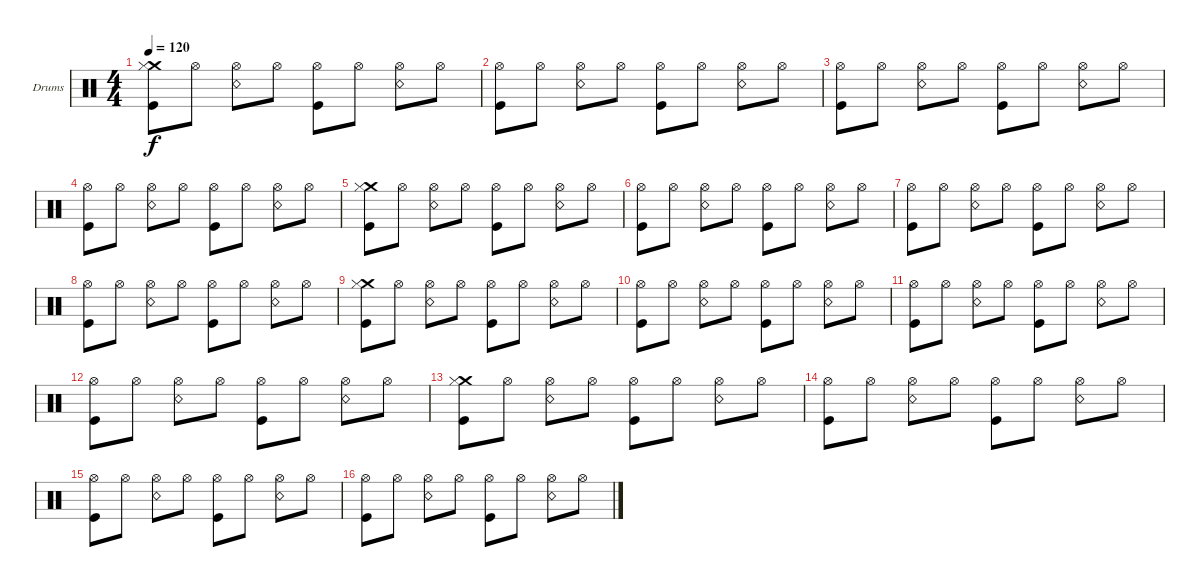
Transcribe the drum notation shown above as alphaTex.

\defaultSystemsLayout 4
\bracketExtendMode groupsimilarinstruments
\firstSystemTrackNameOrientation horizontal
\otherSystemsTrackNameOrientation horizontal
\track ("Drumkit" "Drums") {instrument percussion}
\staff {score}
\articulation defaults
\ts (4 4)
\tempo 120
\clef neutral
\scale
0.333333
\ks c
("Kick (hit)" "Crash medium (hit)" "Hi-Hat (closed)").8{dy f} "Hi-Hat (open)".8 ("Hi-Hat (open)" "Snare (rim shot)").8 "Hi-Hat (open)".8 ("Hi-Hat (open)" "Kick (hit)").8 "Hi-Hat (open)".8 ("Hi-Hat (open)" "Snare (rim shot)").8 "Hi-Hat (open)".8 |
\scale
0.333333 ("Kick (hit)" "Hi-Hat (open)").8 "Hi-Hat (open)".8 ("Hi-Hat (open)" "Snare (rim shot)").8 "Hi-Hat (open)".8 ("Hi-Hat (open)" "Kick (hit)").8 "Hi-Hat (open)".8 ("Hi-Hat (open)" "Snare (rim shot)").8 "Hi-Hat (open)".8 |
\scale
0.333333 ("Kick (hit)" "Hi-Hat (open)").8 "Hi-Hat (open)".8 ("Hi-Hat (open)" "Snare (rim shot)").8 "Hi-Hat (open)".8 ("Hi-Hat (open)" "Kick (hit)").8 "Hi-Hat (open)".8 ("Hi-Hat (open)" "Snare (rim shot)").8 "Hi-Hat (open)".8 |
\scale
0.333333 ("Kick (hit)" "Hi-Hat (open)").8 "Hi-Hat (open)".8 ("Hi-Hat (open)" "Snare (rim shot)").8 "Hi-Hat (open)".8 ("Hi-Hat (open)" "Kick (hit)").8 "Hi-Hat (open)".8 ("Hi-Hat (open)" "Snare (rim shot)").8 "Hi-Hat (open)".8 |
\scale
0.333333 ("Kick (hit)" "Crash medium (hit)" "Hi-Hat (closed)").8 "Hi-Hat (open)".8 ("Hi-Hat (open)" "Snare (rim shot)").8 "Hi-Hat (open)".8 ("Hi-Hat (open)" "Kick (hit)").8 "Hi-Hat (open)".8 ("Hi-Hat (open)" "Snare (rim shot)").8 "Hi-Hat (open)".8 |
\scale
0.333333 ("Kick (hit)" "Hi-Hat (open)").8 "Hi-Hat (open)".8 ("Hi-Hat (open)" "Snare (rim shot)").8 "Hi-Hat (open)".8 ("Hi-Hat (open)" "Kick (hit)").8 "Hi-Hat (open)".8 ("Hi-Hat (open)" "Snare (rim shot)").8 "Hi-Hat (open)".8 |
\scale
0.333333 ("Kick (hit)" "Hi-Hat (open)").8 "Hi-Hat (open)".8 ("Hi-Hat (open)" "Snare (rim shot)").8 "Hi-Hat (open)".8 ("Hi-Hat (open)" "Kick (hit)").8 "Hi-Hat (open)".8 ("Hi-Hat (open)" "Snare (rim shot)").8 "Hi-Hat (open)".8 |
\scale
0.333333 ("Kick (hit)" "Hi-Hat (open)").8 "Hi-Hat (open)".8 ("Hi-Hat (open)" "Snare (rim shot)").8 "Hi-Hat (open)".8 ("Hi-Hat (open)" "Kick (hit)").8 "Hi-Hat (open)".8 ("Hi-Hat (open)" "Snare (rim shot)").8 "Hi-Hat (open)".8 |
\scale
0.333333 ("Kick (hit)" "Crash medium (hit)" "Hi-Hat (closed)").8 "Hi-Hat (open)".8 ("Hi-Hat (open)" "Snare (rim shot)").8 "Hi-Hat (open)".8 ("Hi-Hat (open)" "Kick (hit)").8 "Hi-Hat (open)".8 ("Hi-Hat (open)" "Snare (rim shot)").8 "Hi-Hat (open)".8 |
\scale
0.333333 ("Kick (hit)" "Hi-Hat (open)").8 "Hi-Hat (open)".8 ("Hi-Hat (open)" "Snare (rim shot)").8 "Hi-Hat (open)".8 ("Hi-Hat (open)" "Kick (hit)").8 "Hi-Hat (open)".8 ("Hi-Hat (open)" "Snare (rim shot)").8 "Hi-Hat (open)".8 |
\scale
0.333333 ("Kick (hit)" "Hi-Hat (open)").8 "Hi-Hat (open)".8 ("Hi-Hat (open)" "Snare (rim shot)").8 "Hi-Hat (open)".8 ("Hi-Hat (open)" "Kick (hit)").8 "Hi-Hat (open)".8 ("Hi-Hat (open)" "Snare (rim shot)").8 "Hi-Hat (open)".8 |
\scale
0.333333 ("Kick (hit)" "Hi-Hat (open)").8 "Hi-Hat (open)".8 ("Hi-Hat (open)" "Snare (rim shot)").8 "Hi-Hat (open)".8 ("Hi-Hat (open)" "Kick (hit)").8 "Hi-Hat (open)".8 ("Hi-Hat (open)" "Snare (rim shot)").8 "Hi-Hat (open)".8 |
\scale
0.333333 ("Kick (hit)" "Crash medium (hit)" "Hi-Hat (closed)").8 "Hi-Hat (open)".8 ("Hi-Hat (open)" "Snare (rim shot)").8 "Hi-Hat (open)".8 ("Hi-Hat (open)" "Kick (hit)").8 "Hi-Hat (open)".8 ("Hi-Hat (open)" "Snare (rim shot)").8 "Hi-Hat (open)".8 |
\scale
0.333333 ("Kick (hit)" "Hi-Hat (open)").8 "Hi-Hat (open)".8 ("Hi-Hat (open)" "Snare (rim shot)").8 "Hi-Hat (open)".8 ("Hi-Hat (open)" "Kick (hit)").8 "Hi-Hat (open)".8 ("Hi-Hat (open)" "Snare (rim shot)").8 "Hi-Hat (open)".8 |
\scale
0.333333 ("Kick (hit)" "Hi-Hat (open)").8 "Hi-Hat (open)".8 ("Hi-Hat (open)" "Snare (rim shot)").8 "Hi-Hat (open)".8 ("Hi-Hat (open)" "Kick (hit)").8 "Hi-Hat (open)".8 ("Hi-Hat (open)" "Snare (rim shot)").8 "Hi-Hat (open)".8 |
\scale
0.333333 ("Kick (hit)" "Hi-Hat (open)").8 "Hi-Hat (open)".8 ("Hi-Hat (open)" "Snare (rim shot)").8 "Hi-Hat (open)".8 ("Hi-Hat (open)" "Kick (hit)").8 "Hi-Hat (open)".8 ("Hi-Hat (open)" "Snare (rim shot)").8 "Hi-Hat (open)".8
